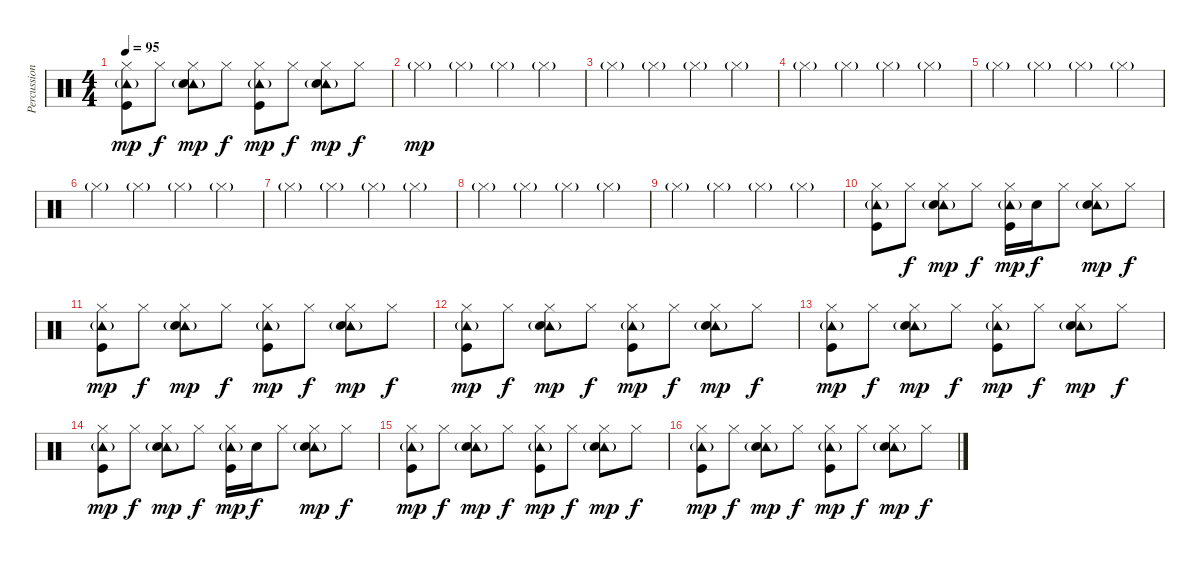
\track ("Percussion" "Percussion") {instrument percussion}
\staff {score}
\articulation defaults
\ts (4 4)
\tempo 95
\clef neutral
\ks c
("Hi-Hat (closed)" "Tambourine (hit)"{g} "Kick (hit)").8{dy mp} "Hi-Hat (closed)".8{dy f} ("Hi-Hat (closed)" "Tambourine (hit)"{g} "Electric Snare (hit)").8{dy mp} "Hi-Hat (closed)".8{dy f} ("Hi-Hat (closed)" "Tambourine (hit)"{g} "Kick (hit)").8{dy mp} "Hi-Hat (closed)".8{dy f} ("Hi-Hat (closed)" "Tambourine (hit)"{g} "Electric Snare (hit)").8{dy mp} "Hi-Hat (closed)".8{dy f} |
"Hi-Hat (closed)"{g}.4{dy mp} "Hi-Hat (closed)"{g}.4 "Hi-Hat (closed)"{g}.4 "Hi-Hat (closed)"{g}.4 |
"Hi-Hat (closed)"{g}.4 "Hi-Hat (closed)"{g}.4 "Hi-Hat (closed)"{g}.4 "Hi-Hat (closed)"{g}.4 |
"Hi-Hat (closed)"{g}.4 "Hi-Hat (closed)"{g}.4 "Hi-Hat (closed)"{g}.4 "Hi-Hat (closed)"{g}.4 |
"Hi-Hat (closed)"{g}.4 "Hi-Hat (closed)"{g}.4 "Hi-Hat (closed)"{g}.4 "Hi-Hat (closed)"{g}.4 |
"Hi-Hat (closed)"{g}.4 "Hi-Hat (closed)"{g}.4 "Hi-Hat (closed)"{g}.4 "Hi-Hat (closed)"{g}.4 |
"Hi-Hat (closed)"{g}.4 "Hi-Hat (closed)"{g}.4 "Hi-Hat (closed)"{g}.4 "Hi-Hat (closed)"{g}.4 |
"Hi-Hat (closed)"{g}.4 "Hi-Hat (closed)"{g}.4 "Hi-Hat (closed)"{g}.4 "Hi-Hat (closed)"{g}.4 |
"Hi-Hat (closed)"{g}.4 "Hi-Hat (closed)"{g}.4 "Hi-Hat (closed)"{g}.4 "Hi-Hat (closed)"{g}.4 |
("Hi-Hat (closed)" "Tambourine (hit)"{g} "Kick (hit)").8 "Hi-Hat (closed)".8{dy f} ("Hi-Hat (closed)" "Tambourine (hit)"{g} "Electric Snare (hit)").8{dy mp} "Hi-Hat (closed)".8{dy f} ("Hi-Hat (closed)" "Tambourine (hit)"{g} "Kick (hit)").16{dy mp} "Electric Snare (hit)".16{dy f} "Hi-Hat (closed)".8 ("Hi-Hat (closed)" "Tambourine (hit)"{g} "Electric Snare (hit)").8{dy mp} "Hi-Hat (closed)".8{dy f} |
("Hi-Hat (closed)" "Tambourine (hit)"{g} "Kick (hit)").8{dy mp} "Hi-Hat (closed)".8{dy f} ("Hi-Hat (closed)" "Tambourine (hit)"{g} "Electric Snare (hit)").8{dy mp} "Hi-Hat (closed)".8{dy f} ("Hi-Hat (closed)" "Tambourine (hit)"{g} "Kick (hit)").8{dy mp} "Hi-Hat (closed)".8{dy f} ("Hi-Hat (closed)" "Tambourine (hit)"{g} "Electric Snare (hit)").8{dy mp} "Hi-Hat (closed)".8{dy f} |
("Hi-Hat (closed)" "Tambourine (hit)"{g} "Kick (hit)").8{dy mp} "Hi-Hat (closed)".8{dy f} ("Hi-Hat (closed)" "Tambourine (hit)"{g} "Electric Snare (hit)").8{dy mp} "Hi-Hat (closed)".8{dy f} ("Hi-Hat (closed)" "Tambourine (hit)"{g} "Kick (hit)").8{dy mp} "Hi-Hat (closed)".8{dy f} ("Hi-Hat (closed)" "Tambourine (hit)"{g} "Electric Snare (hit)").8{dy mp} "Hi-Hat (closed)".8{dy f} |
("Hi-Hat (closed)" "Tambourine (hit)"{g} "Kick (hit)").8{dy mp} "Hi-Hat (closed)".8{dy f} ("Hi-Hat (closed)" "Tambourine (hit)"{g} "Electric Snare (hit)").8{dy mp} "Hi-Hat (closed)".8{dy f} ("Hi-Hat (closed)" "Tambourine (hit)"{g} "Kick (hit)").8{dy mp} "Hi-Hat (closed)".8{dy f} ("Hi-Hat (closed)" "Tambourine (hit)"{g} "Electric Snare (hit)").8{dy mp} "Hi-Hat (closed)".8{dy f} |
("Hi-Hat (closed)" "Tambourine (hit)"{g} "Kick (hit)").8{dy mp} "Hi-Hat (closed)".8{dy f} ("Hi-Hat (closed)" "Tambourine (hit)"{g} "Electric Snare (hit)").8{dy mp} "Hi-Hat (closed)".8{dy f} ("Hi-Hat (closed)" "Tambourine (hit)"{g} "Kick (hit)").16{dy mp} "Electric Snare (hit)".16{dy f} "Hi-Hat (closed)".8 ("Hi-Hat (closed)" "Tambourine (hit)"{g} "Electric Snare (hit)").8{dy mp} "Hi-Hat (closed)".8{dy f} |
("Hi-Hat (closed)" "Tambourine (hit)"{g} "Kick (hit)").8{dy mp} "Hi-Hat (closed)".8{dy f} ("Hi-Hat (closed)" "Tambourine (hit)"{g} "Electric Snare (hit)").8{dy mp} "Hi-Hat (closed)".8{dy f} ("Hi-Hat (closed)" "Tambourine (hit)"{g} "Kick (hit)").8{dy mp} "Hi-Hat (closed)".8{dy f} ("Hi-Hat (closed)" "Tambourine (hit)"{g} "Electric Snare (hit)").8{dy mp} "Hi-Hat (closed)".8{dy f} |
("Hi-Hat (closed)" "Tambourine (hit)"{g} "Kick (hit)").8{dy mp} "Hi-Hat (closed)".8{dy f} ("Hi-Hat (closed)" "Tambourine (hit)"{g} "Electric Snare (hit)").8{dy mp} "Hi-Hat (closed)".8{dy f} ("Hi-Hat (closed)" "Tambourine (hit)"{g} "Kick (hit)").8{dy mp} "Hi-Hat (closed)".8{dy f} ("Hi-Hat (closed)" "Tambourine (hit)"{g} "Electric Snare (hit)").8{dy mp} "Hi-Hat (closed)".8{dy f}
